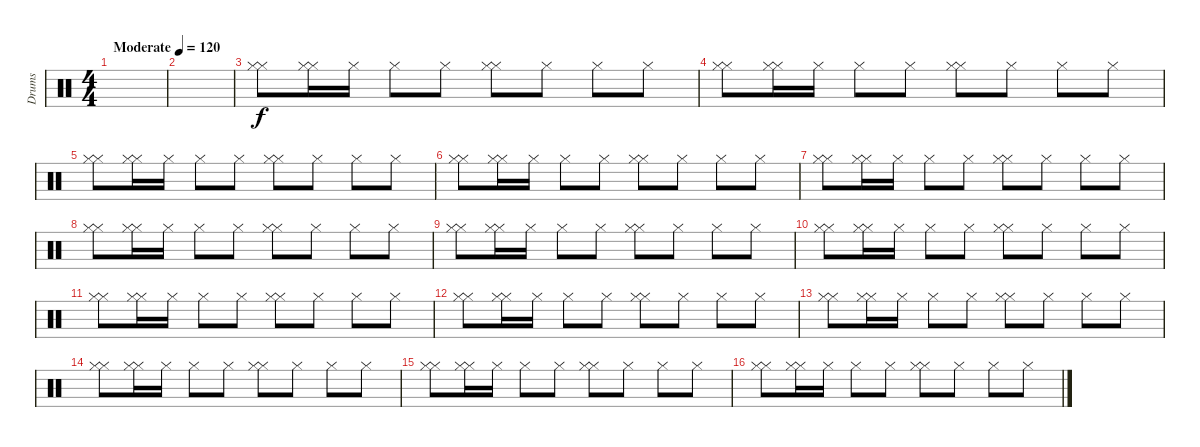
\track ("Drums" "Drums") {instrument percussion}
\staff {score}
\articulation defaults
\ts (4 4)
\tempo (120 "Moderate")
\clef neutral
\ks c
|
|
("Hi-Hat (closed)" "Hi-Hat (closed)").8 ("Hi-Hat (closed)" "Hi-Hat (closed)").16 "Hi-Hat (closed)".16 "Hi-Hat (closed)".8 "Hi-Hat (closed)".8 ("Hi-Hat (closed)" "Hi-Hat (closed)").8 "Hi-Hat (closed)".8 "Hi-Hat (closed)".8 "Hi-Hat (closed)".8 |
("Hi-Hat (closed)" "Hi-Hat (closed)").8 ("Hi-Hat (closed)" "Hi-Hat (closed)").16 "Hi-Hat (closed)".16 "Hi-Hat (closed)".8 "Hi-Hat (closed)".8 ("Hi-Hat (closed)" "Hi-Hat (closed)").8 "Hi-Hat (closed)".8 "Hi-Hat (closed)".8 "Hi-Hat (closed)".8 |
("Hi-Hat (closed)" "Hi-Hat (closed)").8 ("Hi-Hat (closed)" "Hi-Hat (closed)").16 "Hi-Hat (closed)".16 "Hi-Hat (closed)".8 "Hi-Hat (closed)".8 ("Hi-Hat (closed)" "Hi-Hat (closed)").8 "Hi-Hat (closed)".8 "Hi-Hat (closed)".8 "Hi-Hat (closed)".8 |
("Hi-Hat (closed)" "Hi-Hat (closed)").8 ("Hi-Hat (closed)" "Hi-Hat (closed)").16 "Hi-Hat (closed)".16 "Hi-Hat (closed)".8 "Hi-Hat (closed)".8 ("Hi-Hat (closed)" "Hi-Hat (closed)").8 "Hi-Hat (closed)".8 "Hi-Hat (closed)".8 "Hi-Hat (closed)".8 |
("Hi-Hat (closed)" "Hi-Hat (closed)").8 ("Hi-Hat (closed)" "Hi-Hat (closed)").16 "Hi-Hat (closed)".16 "Hi-Hat (closed)".8 "Hi-Hat (closed)".8 ("Hi-Hat (closed)" "Hi-Hat (closed)").8 "Hi-Hat (closed)".8 "Hi-Hat (closed)".8 "Hi-Hat (closed)".8 |
("Hi-Hat (closed)" "Hi-Hat (closed)").8 ("Hi-Hat (closed)" "Hi-Hat (closed)").16 "Hi-Hat (closed)".16 "Hi-Hat (closed)".8 "Hi-Hat (closed)".8 ("Hi-Hat (closed)" "Hi-Hat (closed)").8 "Hi-Hat (closed)".8 "Hi-Hat (closed)".8 "Hi-Hat (closed)".8 |
("Hi-Hat (closed)" "Hi-Hat (closed)").8 ("Hi-Hat (closed)" "Hi-Hat (closed)").16 "Hi-Hat (closed)".16 "Hi-Hat (closed)".8 "Hi-Hat (closed)".8 ("Hi-Hat (closed)" "Hi-Hat (closed)").8 "Hi-Hat (closed)".8 "Hi-Hat (closed)".8 "Hi-Hat (closed)".8 |
("Hi-Hat (closed)" "Hi-Hat (closed)").8 ("Hi-Hat (closed)" "Hi-Hat (closed)").16 "Hi-Hat (closed)".16 "Hi-Hat (closed)".8 "Hi-Hat (closed)".8 ("Hi-Hat (closed)" "Hi-Hat (closed)").8 "Hi-Hat (closed)".8 "Hi-Hat (closed)".8 "Hi-Hat (closed)".8 |
("Hi-Hat (closed)" "Hi-Hat (closed)").8 ("Hi-Hat (closed)" "Hi-Hat (closed)").16 "Hi-Hat (closed)".16 "Hi-Hat (closed)".8 "Hi-Hat (closed)".8 ("Hi-Hat (closed)" "Hi-Hat (closed)").8 "Hi-Hat (closed)".8 "Hi-Hat (closed)".8 "Hi-Hat (closed)".8 |
("Hi-Hat (closed)" "Hi-Hat (closed)").8 ("Hi-Hat (closed)" "Hi-Hat (closed)").16 "Hi-Hat (closed)".16 "Hi-Hat (closed)".8 "Hi-Hat (closed)".8 ("Hi-Hat (closed)" "Hi-Hat (closed)").8 "Hi-Hat (closed)".8 "Hi-Hat (closed)".8 "Hi-Hat (closed)".8 |
("Hi-Hat (closed)" "Hi-Hat (closed)").8 ("Hi-Hat (closed)" "Hi-Hat (closed)").16 "Hi-Hat (closed)".16 "Hi-Hat (closed)".8 "Hi-Hat (closed)".8 ("Hi-Hat (closed)" "Hi-Hat (closed)").8 "Hi-Hat (closed)".8 "Hi-Hat (closed)".8 "Hi-Hat (closed)".8 |
("Hi-Hat (closed)" "Hi-Hat (closed)").8 ("Hi-Hat (closed)" "Hi-Hat (closed)").16 "Hi-Hat (closed)".16 "Hi-Hat (closed)".8 "Hi-Hat (closed)".8 ("Hi-Hat (closed)" "Hi-Hat (closed)").8 "Hi-Hat (closed)".8 "Hi-Hat (closed)".8 "Hi-Hat (closed)".8 |
("Hi-Hat (closed)" "Hi-Hat (closed)").8 ("Hi-Hat (closed)" "Hi-Hat (closed)").16 "Hi-Hat (closed)".16 "Hi-Hat (closed)".8 "Hi-Hat (closed)".8 ("Hi-Hat (closed)" "Hi-Hat (closed)").8 "Hi-Hat (closed)".8 "Hi-Hat (closed)".8 "Hi-Hat (closed)".8 |
("Hi-Hat (closed)" "Hi-Hat (closed)").8 ("Hi-Hat (closed)" "Hi-Hat (closed)").16 "Hi-Hat (closed)".16 "Hi-Hat (closed)".8 "Hi-Hat (closed)".8 ("Hi-Hat (closed)" "Hi-Hat (closed)").8 "Hi-Hat (closed)".8 "Hi-Hat (closed)".8 "Hi-Hat (closed)".8
